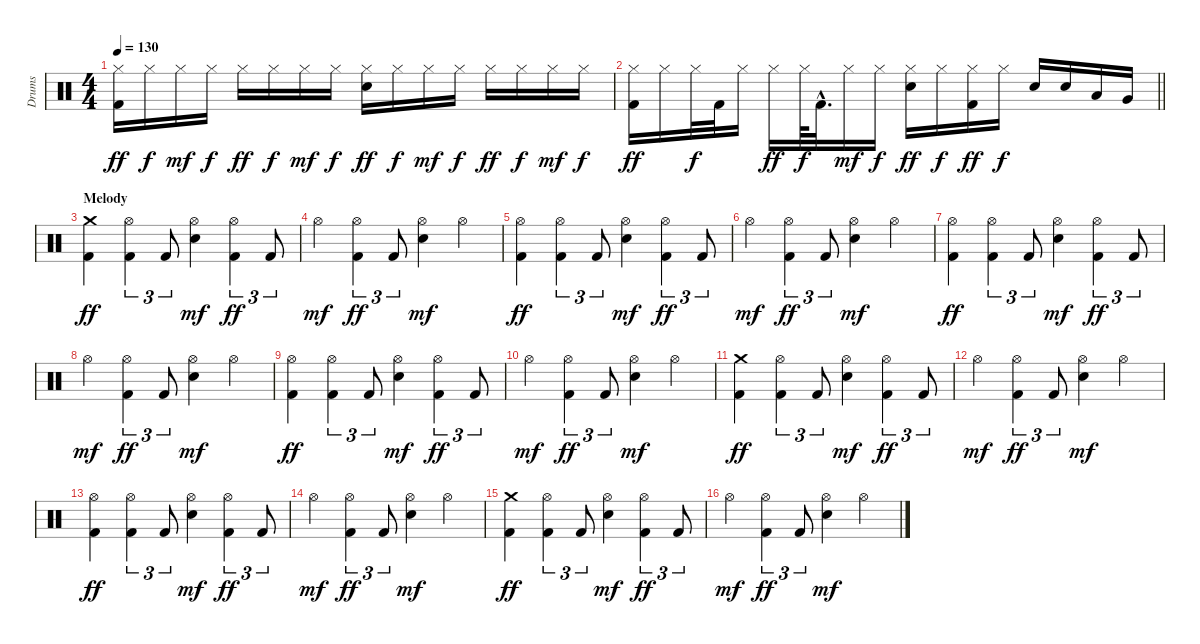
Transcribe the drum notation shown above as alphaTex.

\track ("Drums" "Drums") {instrument percussion}
\staff {score}
\articulation defaults
\ts (4 4)
\tempo 130
\clef neutral
\ks c
("Hi-Hat (closed)" "Kick (hit) 2").16{dy ff} "Hi-Hat (closed)".16{dy f} "Hi-Hat (closed)".16{dy mf} "Hi-Hat (closed)".16{dy f} "Hi-Hat (closed)".16{dy ff} "Hi-Hat (closed)".16{dy f} "Hi-Hat (closed)".16{dy mf} "Hi-Hat (closed)".16{dy f} ("Hi-Hat (closed)" "Snare (hit) 2").16{dy ff} "Hi-Hat (closed)".16{dy f} "Hi-Hat (closed)".16{dy mf} "Hi-Hat (closed)".16{dy f} "Hi-Hat (closed)".16{dy ff} "Hi-Hat (closed)".16{dy f} "Hi-Hat (closed)".16{dy mf} "Hi-Hat (closed)".16{dy f} |
\barLineRight lightlight
("Hi-Hat (closed)" "Kick (hit) 2").16{dy ff} "Hi-Hat (closed)".16 "Hi-Hat (closed)".32{dy f} "Kick (hit) 2".32 "Hi-Hat (closed)".16 "Hi-Hat (closed)".16{dy ff} "Hi-Hat (closed)".64{dy f} "Kick (hit) 2"{hac}.32{d} "Hi-Hat (closed)".16{dy mf} "Hi-Hat (closed)".16{dy f} ("Hi-Hat (closed)" "Snare (hit) 2").16{dy ff} "Hi-Hat (closed)".16{dy f} ("Hi-Hat (closed)" "Kick (hit) 2").16{dy ff} "Hi-Hat (closed)".16{dy f} "Snare (hit) 2".16 "Snare (hit) 2".16 "Low Tom (hit)".16 "Very Low Tom (hit)".16 |
\section ("" "Melody")
("Crash medium (hit)" "Kick (hit) 2").4{dy ff} ("Hi-Hat (open)" "Kick (hit) 2").4{tu (3 2)} "Kick (hit) 2".8{tu (3 2)} ("Hi-Hat (open)" "Snare (hit) 2").4{dy mf} ("Hi-Hat (open)" "Kick (hit) 2").4{tu (3 2) dy ff} "Kick (hit) 2".8{tu (3 2)} |
"Hi-Hat (open)".4{dy mf} ("Hi-Hat (open)" "Kick (hit) 2").4{tu (3 2) dy ff} "Kick (hit) 2".8{tu (3 2)} ("Hi-Hat (open)" "Snare (hit) 2").4{dy mf} "Hi-Hat (open)".4 |
("Hi-Hat (open)" "Kick (hit) 2").4{dy ff} ("Hi-Hat (open)" "Kick (hit) 2").4{tu (3 2)} "Kick (hit) 2".8{tu (3 2)} ("Hi-Hat (open)" "Snare (hit) 2").4{dy mf} ("Hi-Hat (open)" "Kick (hit) 2").4{tu (3 2) dy ff} "Kick (hit) 2".8{tu (3 2)} |
"Hi-Hat (open)".4{dy mf} ("Hi-Hat (open)" "Kick (hit) 2").4{tu (3 2) dy ff} "Kick (hit) 2".8{tu (3 2)} ("Hi-Hat (open)" "Snare (hit) 2").4{dy mf} "Hi-Hat (open)".4 |
("Hi-Hat (open)" "Kick (hit) 2").4{dy ff} ("Hi-Hat (open)" "Kick (hit) 2").4{tu (3 2)} "Kick (hit) 2".8{tu (3 2)} ("Hi-Hat (open)" "Snare (hit) 2").4{dy mf} ("Hi-Hat (open)" "Kick (hit) 2").4{tu (3 2) dy ff} "Kick (hit) 2".8{tu (3 2)} |
"Hi-Hat (open)".4{dy mf} ("Hi-Hat (open)" "Kick (hit) 2").4{tu (3 2) dy ff} "Kick (hit) 2".8{tu (3 2)} ("Hi-Hat (open)" "Snare (hit) 2").4{dy mf} "Hi-Hat (open)".4 |
("Hi-Hat (open)" "Kick (hit) 2").4{dy ff} ("Hi-Hat (open)" "Kick (hit) 2").4{tu (3 2)} "Kick (hit) 2".8{tu (3 2)} ("Hi-Hat (open)" "Snare (hit) 2").4{dy mf} ("Hi-Hat (open)" "Kick (hit) 2").4{tu (3 2) dy ff} "Kick (hit) 2".8{tu (3 2)} |
"Hi-Hat (open)".4{dy mf} ("Hi-Hat (open)" "Kick (hit) 2").4{tu (3 2) dy ff} "Kick (hit) 2".8{tu (3 2)} ("Hi-Hat (open)" "Snare (hit) 2").4{dy mf} "Hi-Hat (open)".4 |
("Crash medium (hit)" "Kick (hit) 2").4{dy ff} ("Hi-Hat (open)" "Kick (hit) 2").4{tu (3 2)} "Kick (hit) 2".8{tu (3 2)} ("Hi-Hat (open)" "Snare (hit) 2").4{dy mf} ("Hi-Hat (open)" "Kick (hit) 2").4{tu (3 2) dy ff} "Kick (hit) 2".8{tu (3 2)} |
"Hi-Hat (open)".4{dy mf} ("Hi-Hat (open)" "Kick (hit) 2").4{tu (3 2) dy ff} "Kick (hit) 2".8{tu (3 2)} ("Hi-Hat (open)" "Snare (hit) 2").4{dy mf} "Hi-Hat (open)".4 |
("Hi-Hat (open)" "Kick (hit) 2").4{dy ff} ("Hi-Hat (open)" "Kick (hit) 2").4{tu (3 2)} "Kick (hit) 2".8{tu (3 2)} ("Hi-Hat (open)" "Snare (hit) 2").4{dy mf} ("Hi-Hat (open)" "Kick (hit) 2").4{tu (3 2) dy ff} "Kick (hit) 2".8{tu (3 2)} |
"Hi-Hat (open)".4{dy mf} ("Hi-Hat (open)" "Kick (hit) 2").4{tu (3 2) dy ff} "Kick (hit) 2".8{tu (3 2)} ("Hi-Hat (open)" "Snare (hit) 2").4{dy mf} "Hi-Hat (open)".4 |
("Crash medium (hit)" "Kick (hit) 2").4{dy ff} ("Hi-Hat (open)" "Kick (hit) 2").4{tu (3 2)} "Kick (hit) 2".8{tu (3 2)} ("Hi-Hat (open)" "Snare (hit) 2").4{dy mf} ("Hi-Hat (open)" "Kick (hit) 2").4{tu (3 2) dy ff} "Kick (hit) 2".8{tu (3 2)} |
"Hi-Hat (open)".4{dy mf} ("Hi-Hat (open)" "Kick (hit) 2").4{tu (3 2) dy ff} "Kick (hit) 2".8{tu (3 2)} ("Hi-Hat (open)" "Snare (hit) 2").4{dy mf} "Hi-Hat (open)".4
